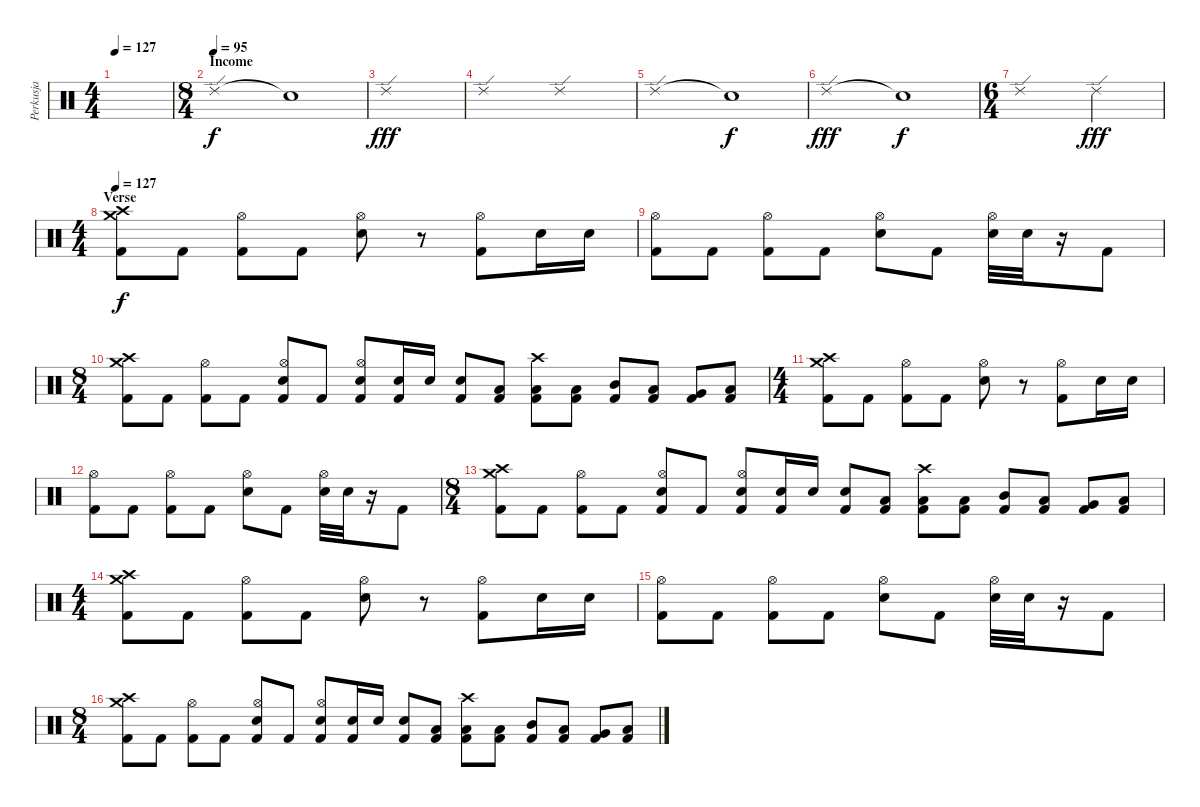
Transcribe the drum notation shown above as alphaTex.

\track ("Perkusja" "Perkusja") {instrument percussion}
\staff {score}
\articulation defaults
\ts (4 4)
\tempo 127
\clef neutral
\ks c
|
\ts (8 4)
\section ("" "Income")
\tempo (95)
"Ride (edge) 2".1 "Snare (hit)"{t}.1{dy f} |
"Ride (edge) 2".1{dy fff} |
"Ride (edge) 2".1 "Ride (edge) 2".1 |
"Ride (edge) 2".1 "Snare (hit)"{t}.1{dy f} |
"Ride (edge) 2".1{dy fff} "Snare (hit)"{t}.1{dy f} |
\ts (6 4)
"Ride (edge) 2".1 "Ride (edge) 2".2{dy fff} |
\ts (4 4)
\section ("" "Verse")
\tempo 127
("Crash medium (hit)" "Crash high (hit)" "Kick (hit) 2").8{dy f} "Kick (hit) 2".8 ("Hi-Hat (open)" "Kick (hit) 2").8 "Kick (hit) 2".8 ("Hi-Hat (open)" "Electric Snare (hit)").8 r.8 ("Hi-Hat (open)" "Kick (hit) 2").8 "Electric Snare (hit)".16 "Electric Snare (hit)".16 |
("Hi-Hat (open)" "Kick (hit) 2").8 "Kick (hit) 2".8 ("Hi-Hat (open)" "Kick (hit) 2").8 "Kick (hit) 2".8 ("Hi-Hat (open)" "Electric Snare (hit)").8 "Kick (hit) 2".8 ("Hi-Hat (open)" "Electric Snare (hit)").32 "Electric Snare (hit)".32 r.16 "Kick (hit) 2".8 |
\ts (8 4)
("Crash medium (hit)" "Crash high (hit)" "Kick (hit) 2").8 "Kick (hit) 2".8 ("Hi-Hat (open)" "Kick (hit) 2").8 "Kick (hit) 2".8 ("Hi-Hat (open)" "Electric Snare (hit)" "Kick (hit) 2").8 "Kick (hit) 2".8 ("Hi-Hat (open)" "Electric Snare (hit)" "Kick (hit) 2").8 ("Electric Snare (hit)" "Kick (hit) 2").16 "Electric Snare (hit)".16 ("Electric Snare (hit)" "Kick (hit) 2").8 ("Low Floor Tom (hit)" "Kick (hit) 2").8 ("Crash high (hit)" "Low Floor Tom (hit)" "Kick (hit) 2").8 ("Low Floor Tom (hit)" "Kick (hit) 2").8 ("Mid Tom (hit)" "Kick (hit) 2").8 ("Low Tom (hit)" "Kick (hit) 2").8 ("Very Low Tom (hit)" "Kick (hit) 2").8 ("Low Floor Tom (hit)" "Kick (hit) 2").8 |
\ts (4 4)
("Crash medium (hit)" "Crash high (hit)" "Kick (hit) 2").8 "Kick (hit) 2".8 ("Hi-Hat (open)" "Kick (hit) 2").8 "Kick (hit) 2".8 ("Hi-Hat (open)" "Electric Snare (hit)").8 r.8 ("Hi-Hat (open)" "Kick (hit) 2").8 "Electric Snare (hit)".16 "Electric Snare (hit)".16 |
("Hi-Hat (open)" "Kick (hit) 2").8 "Kick (hit) 2".8 ("Hi-Hat (open)" "Kick (hit) 2").8 "Kick (hit) 2".8 ("Hi-Hat (open)" "Electric Snare (hit)").8 "Kick (hit) 2".8 ("Hi-Hat (open)" "Electric Snare (hit)").32 "Electric Snare (hit)".32 r.16 "Kick (hit) 2".8 |
\ts (8 4)
("Crash medium (hit)" "Crash high (hit)" "Kick (hit) 2").8 "Kick (hit) 2".8 ("Hi-Hat (open)" "Kick (hit) 2").8 "Kick (hit) 2".8 ("Hi-Hat (open)" "Electric Snare (hit)" "Kick (hit) 2").8 "Kick (hit) 2".8 ("Hi-Hat (open)" "Electric Snare (hit)" "Kick (hit) 2").8 ("Electric Snare (hit)" "Kick (hit) 2").16 "Electric Snare (hit)".16 ("Electric Snare (hit)" "Kick (hit) 2").8 ("Low Floor Tom (hit)" "Kick (hit) 2").8 ("Crash high (hit)" "Low Floor Tom (hit)" "Kick (hit) 2").8 ("Low Floor Tom (hit)" "Kick (hit) 2").8 ("Mid Tom (hit)" "Kick (hit) 2").8 ("Low Tom (hit)" "Kick (hit) 2").8 ("Very Low Tom (hit)" "Kick (hit) 2").8 ("Low Floor Tom (hit)" "Kick (hit) 2").8 |
\ts (4 4)
("Crash medium (hit)" "Crash high (hit)" "Kick (hit) 2").8 "Kick (hit) 2".8 ("Hi-Hat (open)" "Kick (hit) 2").8 "Kick (hit) 2".8 ("Hi-Hat (open)" "Electric Snare (hit)").8 r.8 ("Hi-Hat (open)" "Kick (hit) 2").8 "Electric Snare (hit)".16 "Electric Snare (hit)".16 |
("Hi-Hat (open)" "Kick (hit) 2").8 "Kick (hit) 2".8 ("Hi-Hat (open)" "Kick (hit) 2").8 "Kick (hit) 2".8 ("Hi-Hat (open)" "Electric Snare (hit)").8 "Kick (hit) 2".8 ("Hi-Hat (open)" "Electric Snare (hit)").32 "Electric Snare (hit)".32 r.16 "Kick (hit) 2".8 |
\ts (8 4)
("Crash medium (hit)" "Crash high (hit)" "Kick (hit) 2").8 "Kick (hit) 2".8 ("Hi-Hat (open)" "Kick (hit) 2").8 "Kick (hit) 2".8 ("Hi-Hat (open)" "Electric Snare (hit)" "Kick (hit) 2").8 "Kick (hit) 2".8 ("Hi-Hat (open)" "Electric Snare (hit)" "Kick (hit) 2").8 ("Electric Snare (hit)" "Kick (hit) 2").16 "Electric Snare (hit)".16 ("Electric Snare (hit)" "Kick (hit) 2").8 ("Low Floor Tom (hit)" "Kick (hit) 2").8 ("Crash high (hit)" "Low Floor Tom (hit)" "Kick (hit) 2").8 ("Low Floor Tom (hit)" "Kick (hit) 2").8 ("Mid Tom (hit)" "Kick (hit) 2").8 ("Low Tom (hit)" "Kick (hit) 2").8 ("Very Low Tom (hit)" "Kick (hit) 2").8 ("Low Floor Tom (hit)" "Kick (hit) 2").8
